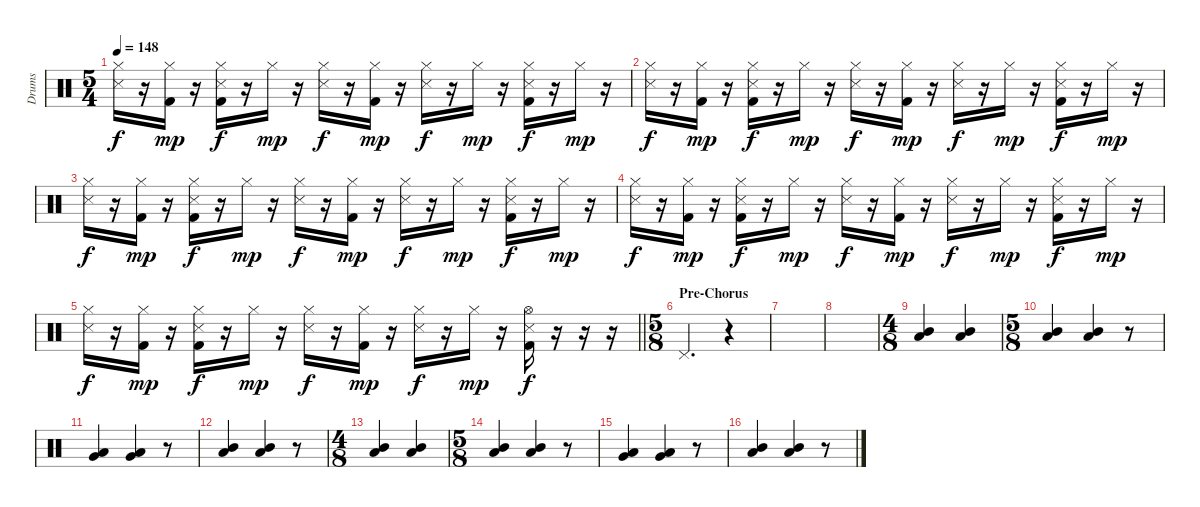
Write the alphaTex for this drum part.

\track ("Drums" "Drums") {instrument percussion}
\staff {score}
\articulation defaults
\ts (5 4)
\tempo 148
\clef neutral
\ks c
("Hi-Hat (closed)" "Snare (side stick) 3").16{dy f} r.16 ("Hi-Hat (closed)" "Kick (hit) 2").16{dy mp} r.16 ("Hi-Hat (closed)" "Snare (side stick) 3" "Kick (hit) 2").16{dy f} r.16 "Hi-Hat (closed)".16{dy mp} r.16 ("Hi-Hat (closed)" "Snare (side stick) 3").16{dy f} r.16 ("Hi-Hat (closed)" "Kick (hit) 2").16{dy mp} r.16 ("Hi-Hat (closed)" "Snare (side stick) 3").16{dy f} r.16 "Hi-Hat (closed)".16{dy mp} r.16 ("Hi-Hat (closed)" "Snare (side stick) 3" "Kick (hit) 2").16{dy f} r.16 "Hi-Hat (closed)".16{dy mp} r.16 |
("Hi-Hat (closed)" "Snare (side stick) 3").16{dy f} r.16 ("Hi-Hat (closed)" "Kick (hit) 2").16{dy mp} r.16 ("Hi-Hat (closed)" "Snare (side stick) 3" "Kick (hit) 2").16{dy f} r.16 "Hi-Hat (closed)".16{dy mp} r.16 ("Hi-Hat (closed)" "Snare (side stick) 3").16{dy f} r.16 ("Hi-Hat (closed)" "Kick (hit) 2").16{dy mp} r.16 ("Hi-Hat (closed)" "Snare (side stick) 3").16{dy f} r.16 "Hi-Hat (closed)".16{dy mp} r.16 ("Hi-Hat (closed)" "Snare (side stick) 3" "Kick (hit) 2").16{dy f} r.16 "Hi-Hat (closed)".16{dy mp} r.16 |
("Hi-Hat (closed)" "Snare (side stick) 3").16{dy f} r.16 ("Hi-Hat (closed)" "Kick (hit) 2").16{dy mp} r.16 ("Hi-Hat (closed)" "Snare (side stick) 3" "Kick (hit) 2").16{dy f} r.16 "Hi-Hat (closed)".16{dy mp} r.16 ("Hi-Hat (closed)" "Snare (side stick) 3").16{dy f} r.16 ("Hi-Hat (closed)" "Kick (hit) 2").16{dy mp} r.16 ("Hi-Hat (closed)" "Snare (side stick) 3").16{dy f} r.16 "Hi-Hat (closed)".16{dy mp} r.16 ("Hi-Hat (closed)" "Snare (side stick) 3" "Kick (hit) 2").16{dy f} r.16 "Hi-Hat (closed)".16{dy mp} r.16 |
("Hi-Hat (closed)" "Snare (side stick) 3").16{dy f} r.16 ("Hi-Hat (closed)" "Kick (hit) 2").16{dy mp} r.16 ("Hi-Hat (closed)" "Snare (side stick) 3" "Kick (hit) 2").16{dy f} r.16 "Hi-Hat (closed)".16{dy mp} r.16 ("Hi-Hat (closed)" "Snare (side stick) 3").16{dy f} r.16 ("Hi-Hat (closed)" "Kick (hit) 2").16{dy mp} r.16 ("Hi-Hat (closed)" "Snare (side stick) 3").16{dy f} r.16 "Hi-Hat (closed)".16{dy mp} r.16 ("Hi-Hat (closed)" "Snare (side stick) 3" "Kick (hit) 2").16{dy f} r.16 "Hi-Hat (closed)".16{dy mp} r.16 |
\barLineRight lightlight
("Hi-Hat (closed)" "Snare (side stick) 3").16{dy f} r.16 ("Hi-Hat (closed)" "Kick (hit) 2").16{dy mp} r.16 ("Hi-Hat (closed)" "Snare (side stick) 3" "Kick (hit) 2").16{dy f} r.16 "Hi-Hat (closed)".16{dy mp} r.16 ("Hi-Hat (closed)" "Snare (side stick) 3").16{dy f} r.16 ("Hi-Hat (closed)" "Kick (hit) 2").16{dy mp} r.16 ("Hi-Hat (closed)" "Snare (side stick) 3").16{dy f} r.16 "Hi-Hat (closed)".16{dy mp} r.16 ("Hi-Hat (open)" "Snare (side stick) 3" "Kick (hit) 2").16{dy f} r.16 r.16 r.16 |
\ts (5 8)
\section ("" "Pre-Chorus")
"Pedal Hi-Hat (hit)".4{d} r.4 |
|
|
\ts (4 8)
("Low Tom (hit)" "Mid Tom (hit)").4 ("Low Tom (hit)" "Mid Tom (hit)").4 |
\ts (5 8)
("Low Tom (hit)" "Mid Tom (hit)").4 ("Low Tom (hit)" "Mid Tom (hit)").4 r.8 |
("Low Tom (hit)" "Very Low Tom (hit)").4 ("Low Tom (hit)" "Very Low Tom (hit)").4 r.8 |
("Low Tom (hit)" "Mid Tom (hit)").4 ("Low Tom (hit)" "Mid Tom (hit)").4 r.8 |
\ts (4 8)
("Low Tom (hit)" "Mid Tom (hit)").4 ("Low Tom (hit)" "Mid Tom (hit)").4 |
\ts (5 8)
("Low Tom (hit)" "Mid Tom (hit)").4 ("Low Tom (hit)" "Mid Tom (hit)").4 r.8 |
("Low Tom (hit)" "Very Low Tom (hit)").4 ("Low Tom (hit)" "Very Low Tom (hit)").4 r.8 |
("Low Tom (hit)" "Mid Tom (hit)").4 ("Low Tom (hit)" "Mid Tom (hit)").4 r.8
